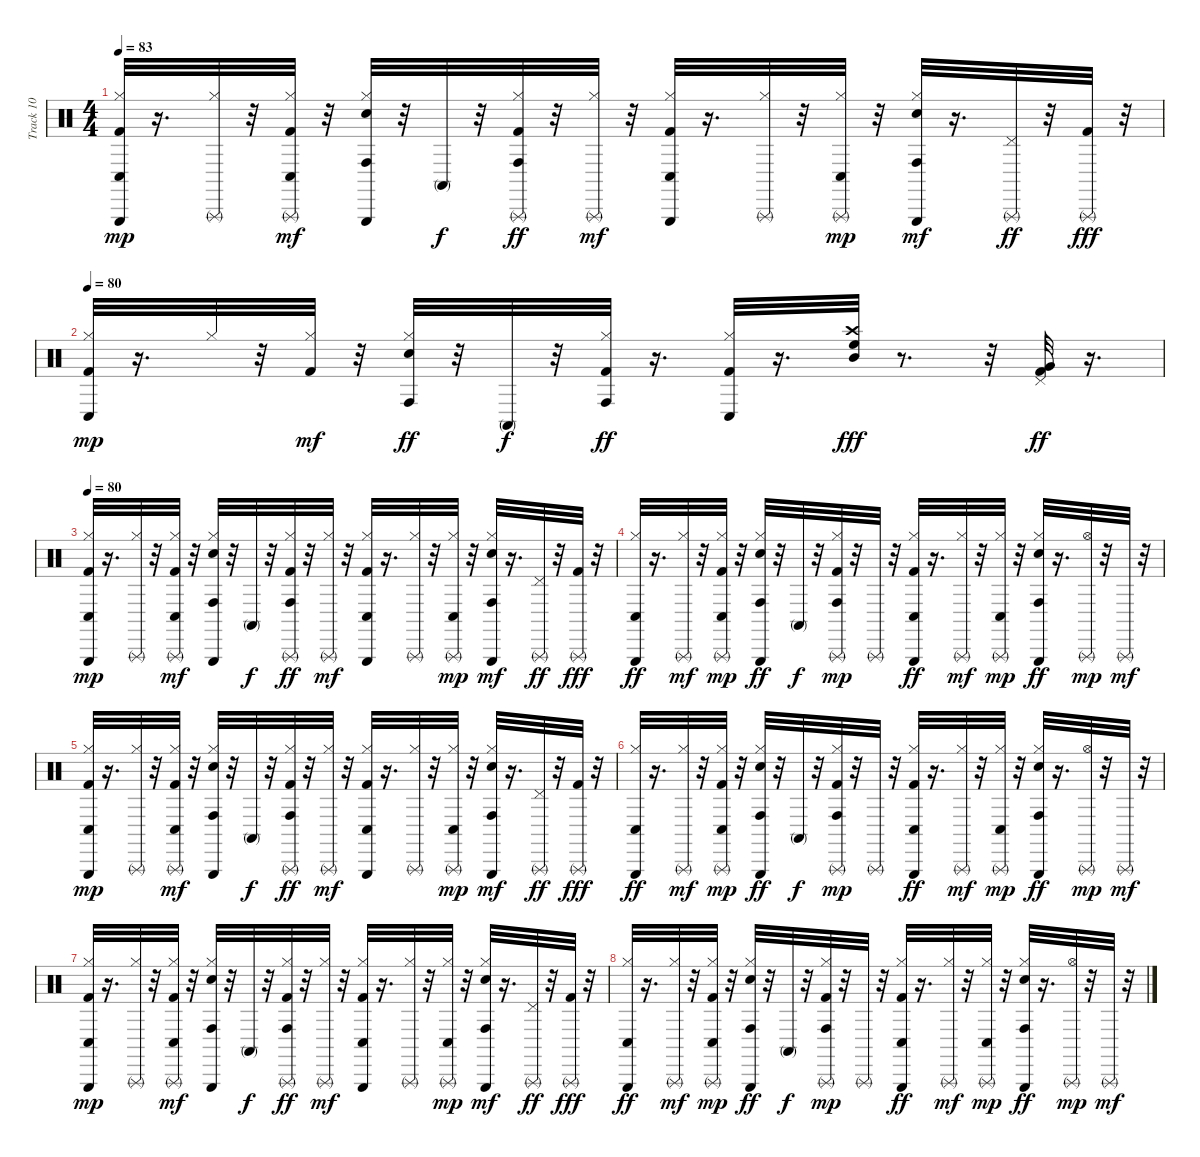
\track ("Track 10" "Track 10") {instrument percussion}
\staff {score}
\articulation defaults
\ts (4 4)
\tempo 83
\clef neutral
\ks c
("Hi-Hat (closed)" "Kick (hit) 2" "Conga low (hit)" "Triangle (hit)").32{dy mp} r.16{d} ("Triangle (rnute)" "Hi-Hat (closed)").32 r.32 ("Triangle (rnute)" "Conga low (hit)" "Kick (hit) 2" "Hi-Hat (closed)").32{dy mf} r.32 ("Conga high (hit)" "Snare (hit) 2" "Hi-Hat (closed)" "Triangle (hit)").32 r.32 "Conga high (mute)".32{dy f} r.32 ("Triangle (rnute)" "Conga high (hit)" "Kick (hit) 2" "Hi-Hat (closed)").32{dy ff} r.32 ("Triangle (rnute)" "Hi-Hat (closed)").32{dy mf} r.32 ("Conga low (hit)" "Kick (hit) 2" "Hi-Hat (closed)" "Triangle (hit)").32 r.16{d} ("Triangle (rnute)" "Hi-Hat (closed)").32 r.32 ("Conga low (hit)" "Hi-Hat (closed)" "Triangle (rnute)").32{dy mp} r.32 ("Conga high (hit)" "Snare (hit) 2" "Hi-Hat (closed)" "Triangle (hit)").32{dy mf} r.16{d} ("Triangle (rnute)" "Pedal Hi-Hat (hit)").32{dy ff} r.32 ("Triangle (rnute)" "Kick (hit) 2").32{dy fff} r.32 |
\tempo 80
("Hi-Hat (closed)" "Kick (hit) 2" "Conga low (hit)").32{dy mp} r.16{d} "Hi-Hat (closed)".32 r.32 ("Kick (hit) 2" "Hi-Hat (closed)").32{dy mf} r.32 ("Conga high (hit)" "Snare (hit) 2" "Hi-Hat (closed)").32{dy ff} r.32 "Conga high (mute)".32{dy f} r.32 ("Conga high (hit)" "Kick (hit) 2" "Hi-Hat (closed)").32{dy ff} r.16{d} ("Conga low (hit)" "Kick (hit) 2" "Hi-Hat (closed)").32 r.16{d} ("High Floor Tom (hit)" "Crash high (hit)" "Mid Tom (hit)").32{dy fff} r.8{d} r.32 ("Kick (hit) 2" "Very Low Tom (hit)" "Pedal Hi-Hat (hit)").32{dy ff} r.16{d} |
\tempo 80
("Hi-Hat (closed)" "Kick (hit) 2" "Conga low (hit)" "Triangle (hit)").32{dy mp} r.16{d} ("Triangle (rnute)" "Hi-Hat (closed)").32 r.32 ("Triangle (rnute)" "Conga low (hit)" "Kick (hit) 2" "Hi-Hat (closed)").32{dy mf} r.32 ("Conga high (hit)" "Snare (hit) 2" "Hi-Hat (closed)" "Triangle (hit)").32 r.32 "Conga high (mute)".32{dy f} r.32 ("Triangle (rnute)" "Conga high (hit)" "Kick (hit) 2" "Hi-Hat (closed)").32{dy ff} r.32 ("Triangle (rnute)" "Hi-Hat (closed)").32{dy mf} r.32 ("Conga low (hit)" "Kick (hit) 2" "Hi-Hat (closed)" "Triangle (hit)").32 r.16{d} ("Triangle (rnute)" "Hi-Hat (closed)").32 r.32 ("Conga low (hit)" "Hi-Hat (closed)" "Triangle (rnute)").32{dy mp} r.32 ("Conga high (hit)" "Snare (hit) 2" "Hi-Hat (closed)" "Triangle (hit)").32{dy mf} r.16{d} ("Triangle (rnute)" "Pedal Hi-Hat (hit)").32{dy ff} r.32 ("Triangle (rnute)" "Kick (hit) 2").32{dy fff} r.32 |
("Triangle (hit)" "Conga low (hit)" "Hi-Hat (closed)").32{dy ff} r.16{d} ("Triangle (rnute)" "Hi-Hat (closed)").32{dy mf} r.32 ("Conga low (hit)" "Kick (hit) 2" "Hi-Hat (closed)" "Triangle (rnute)").32{dy mp} r.32 ("Triangle (hit)" "Conga high (hit)" "Snare (hit) 2" "Hi-Hat (closed)").32{dy ff} r.32 "Conga high (mute)".32{dy f} r.32 ("Hi-Hat (closed)" "Conga high (hit)" "Kick (hit) 2" "Triangle (rnute)").32{dy mp} r.32 "Triangle (rnute)".32 r.32 ("Triangle (hit)" "Conga low (hit)" "Kick (hit) 2" "Hi-Hat (closed)").32{dy ff} r.16{d} ("Hi-Hat (closed)" "Triangle (rnute)").32{dy mf} r.32 ("Conga low (hit)" "Hi-Hat (closed)" "Triangle (rnute)").32{dy mp} r.32 ("Triangle (hit)" "Conga high (hit)" "Snare (hit) 2" "Hi-Hat (closed)").32{dy ff} r.16{d} ("Triangle (rnute)" "Hi-Hat (open)").32{dy mp} r.32 "Triangle (rnute)".32{dy mf} r.32 |
("Hi-Hat (closed)" "Kick (hit) 2" "Conga low (hit)" "Triangle (hit)").32{dy mp} r.16{d} ("Triangle (rnute)" "Hi-Hat (closed)").32 r.32 ("Triangle (rnute)" "Conga low (hit)" "Kick (hit) 2" "Hi-Hat (closed)").32{dy mf} r.32 ("Conga high (hit)" "Snare (hit) 2" "Hi-Hat (closed)" "Triangle (hit)").32 r.32 "Conga high (mute)".32{dy f} r.32 ("Triangle (rnute)" "Conga high (hit)" "Kick (hit) 2" "Hi-Hat (closed)").32{dy ff} r.32 ("Triangle (rnute)" "Hi-Hat (closed)").32{dy mf} r.32 ("Conga low (hit)" "Kick (hit) 2" "Hi-Hat (closed)" "Triangle (hit)").32 r.16{d} ("Triangle (rnute)" "Hi-Hat (closed)").32 r.32 ("Conga low (hit)" "Hi-Hat (closed)" "Triangle (rnute)").32{dy mp} r.32 ("Conga high (hit)" "Snare (hit) 2" "Hi-Hat (closed)" "Triangle (hit)").32{dy mf} r.16{d} ("Triangle (rnute)" "Pedal Hi-Hat (hit)").32{dy ff} r.32 ("Triangle (rnute)" "Kick (hit) 2").32{dy fff} r.32 |
("Triangle (hit)" "Conga low (hit)" "Hi-Hat (closed)").32{dy ff} r.16{d} ("Triangle (rnute)" "Hi-Hat (closed)").32{dy mf} r.32 ("Conga low (hit)" "Kick (hit) 2" "Hi-Hat (closed)" "Triangle (rnute)").32{dy mp} r.32 ("Triangle (hit)" "Conga high (hit)" "Snare (hit) 2" "Hi-Hat (closed)").32{dy ff} r.32 "Conga high (mute)".32{dy f} r.32 ("Hi-Hat (closed)" "Conga high (hit)" "Kick (hit) 2" "Triangle (rnute)").32{dy mp} r.32 "Triangle (rnute)".32 r.32 ("Triangle (hit)" "Conga low (hit)" "Kick (hit) 2" "Hi-Hat (closed)").32{dy ff} r.16{d} ("Hi-Hat (closed)" "Triangle (rnute)").32{dy mf} r.32 ("Conga low (hit)" "Hi-Hat (closed)" "Triangle (rnute)").32{dy mp} r.32 ("Triangle (hit)" "Conga high (hit)" "Snare (hit) 2" "Hi-Hat (closed)").32{dy ff} r.16{d} ("Triangle (rnute)" "Hi-Hat (open)").32{dy mp} r.32 "Triangle (rnute)".32{dy mf} r.32 |
("Hi-Hat (closed)" "Kick (hit) 2" "Conga low (hit)" "Triangle (hit)").32{dy mp} r.16{d} ("Triangle (rnute)" "Hi-Hat (closed)").32 r.32 ("Triangle (rnute)" "Conga low (hit)" "Kick (hit) 2" "Hi-Hat (closed)").32{dy mf} r.32 ("Conga high (hit)" "Snare (hit) 2" "Hi-Hat (closed)" "Triangle (hit)").32 r.32 "Conga high (mute)".32{dy f} r.32 ("Triangle (rnute)" "Conga high (hit)" "Kick (hit) 2" "Hi-Hat (closed)").32{dy ff} r.32 ("Triangle (rnute)" "Hi-Hat (closed)").32{dy mf} r.32 ("Conga low (hit)" "Kick (hit) 2" "Hi-Hat (closed)" "Triangle (hit)").32 r.16{d} ("Triangle (rnute)" "Hi-Hat (closed)").32 r.32 ("Conga low (hit)" "Hi-Hat (closed)" "Triangle (rnute)").32{dy mp} r.32 ("Conga high (hit)" "Snare (hit) 2" "Hi-Hat (closed)" "Triangle (hit)").32{dy mf} r.16{d} ("Triangle (rnute)" "Pedal Hi-Hat (hit)").32{dy ff} r.32 ("Triangle (rnute)" "Kick (hit) 2").32{dy fff} r.32 |
("Triangle (hit)" "Conga low (hit)" "Hi-Hat (closed)").32{dy ff} r.16{d} ("Triangle (rnute)" "Hi-Hat (closed)").32{dy mf} r.32 ("Conga low (hit)" "Kick (hit) 2" "Hi-Hat (closed)" "Triangle (rnute)").32{dy mp} r.32 ("Triangle (hit)" "Conga high (hit)" "Snare (hit) 2" "Hi-Hat (closed)").32{dy ff} r.32 "Conga high (mute)".32{dy f} r.32 ("Hi-Hat (closed)" "Conga high (hit)" "Kick (hit) 2" "Triangle (rnute)").32{dy mp} r.32 "Triangle (rnute)".32 r.32 ("Triangle (hit)" "Conga low (hit)" "Kick (hit) 2" "Hi-Hat (closed)").32{dy ff} r.16{d} ("Hi-Hat (closed)" "Triangle (rnute)").32{dy mf} r.32 ("Conga low (hit)" "Hi-Hat (closed)" "Triangle (rnute)").32{dy mp} r.32 ("Triangle (hit)" "Conga high (hit)" "Snare (hit) 2" "Hi-Hat (closed)").32{dy ff} r.16{d} ("Triangle (rnute)" "Hi-Hat (open)").32{dy mp} r.32 "Triangle (rnute)".32{dy mf} r.32
